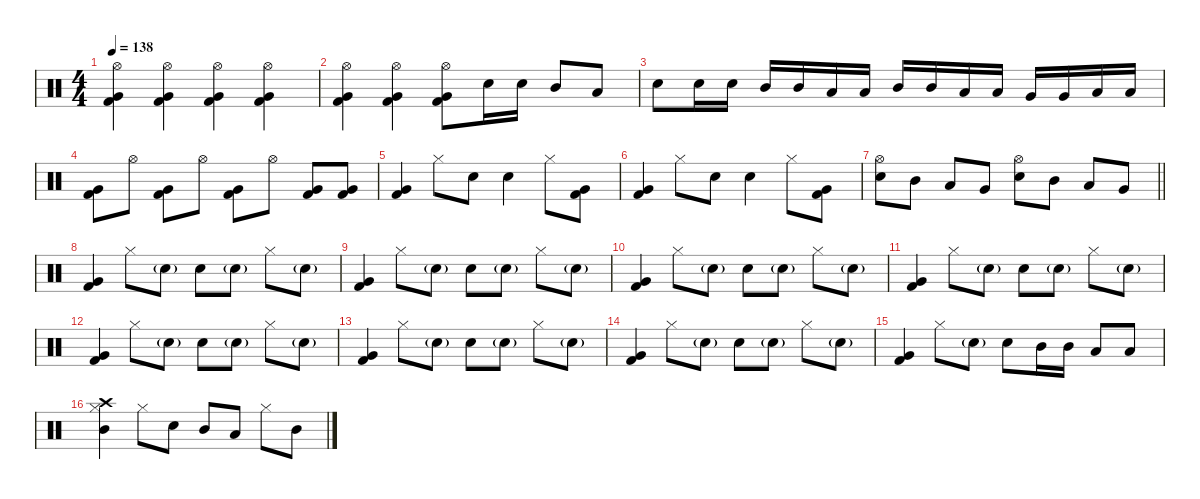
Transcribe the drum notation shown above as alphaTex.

\defaultSystemsLayout 4
\hideDynamics
\bracketExtendMode nobrackets
\singleTrackTrackNamePolicy hidden
\multiTrackTrackNamePolicy hidden
\otherSystemsTrackNameOrientation horizontal
\track ("Drums" "drm.") {instrument percussion}
\staff {score}
\articulation defaults
\ts (4 4)
\tempo 138
\clef neutral
\ks c
("Hi-Hat (open)" "Very Low Tom (hit)" "Kick (hit) 2").4{dy f beam Down} ("Hi-Hat (open)" "Very Low Tom (hit)" "Kick (hit) 2").4{beam Down} ("Hi-Hat (open)" "Very Low Tom (hit)" "Kick (hit) 2").4{beam Down} ("Hi-Hat (open)" "Very Low Tom (hit)" "Kick (hit) 2").4{beam Down} |
("Hi-Hat (open)" "Very Low Tom (hit)" "Kick (hit) 2").4{beam Down} ("Hi-Hat (open)" "Very Low Tom (hit)" "Kick (hit) 2").4{beam Down} ("Hi-Hat (open)" "Very Low Tom (hit)" "Kick (hit) 2").8{beam Down} "Snare (hit) 2".16{beam Down} "Snare (hit) 2".16{beam Down} "Mid Tom (hit)".8{beam Up} "Low Tom (hit)".8{beam Up} |
"Snare (hit) 2".8{beam Down} "Snare (hit) 2".16{beam Down} "Snare (hit) 2".16{beam Down} "Mid Tom (hit)".16{beam Up} "Mid Tom (hit)".16{dy fff beam Up} "Low Tom (hit)".16{dy f beam Up} "Low Tom (hit)".16{dy fff beam Up} "Mid Tom (hit)".16{dy f beam Up} "Mid Tom (hit)".16{beam Up} "Low Tom (hit)".16{beam Up} "Low Tom (hit)".16{beam Up} "Very Low Tom (hit)".16{beam Up} "Very Low Tom (hit)".16{beam Up} "Low Floor Tom (hit)".16{beam Up} "Low Floor Tom (hit)".16{beam Up} |
("Very Low Tom (hit)" "Kick (hit) 2").8{beam Down} "Hi-Hat (open)".8{dy mf beam Down} ("Very Low Tom (hit)" "Kick (hit) 2").8{dy f beam Down} "Hi-Hat (open)".8{dy mf beam Down} ("Very Low Tom (hit)" "Kick (hit) 2").8{dy f beam Down} "Hi-Hat (open)".8{dy mf beam Down} ("Very Low Tom (hit)" "Kick (hit) 2").8{dy f beam Up} ("Very Low Tom (hit)" "Kick (hit) 2").8{beam Up} |
("Very Low Tom (hit)" "Kick (hit) 2").4{dy ff beam Up} "Hi-Hat (closed)".8{dy fff beam Down} "Snare (hit) 2".8{dy p beam Down} "Snare (hit) 2".4{dy ff beam Down} "Hi-Hat (closed)".8{dy fff beam Down} ("Very Low Tom (hit)" "Kick (hit) 2").8{dy ff beam Down} |
("Very Low Tom (hit)" "Kick (hit) 2").4{beam Up} "Hi-Hat (closed)".8{dy fff beam Down} "Snare (hit) 2".8{dy p beam Down} "Snare (hit) 2".4{dy ff beam Down} "Hi-Hat (closed)".8{dy fff beam Down} ("Very Low Tom (hit)" "Kick (hit) 2").8{dy ff beam Down} |
\barLineRight lightlight
("Hi-Hat (open)" "Snare (hit) 2").8{dy fff beam Down} "Mid Tom (hit)".8{beam Down} "Low Tom (hit)".8{beam Up} "Very Low Tom (hit)".8{beam Up} ("Hi-Hat (open)" "Snare (hit) 2").8{beam Down} "Mid Tom (hit)".8{beam Down} "Low Tom (hit)".8{beam Up} "Very Low Tom (hit)".8{beam Up} |
("Very Low Tom (hit)" "Kick (hit) 2").4{dy mf beam Up} "Hi-Hat (closed)".8{dy fff beam Down} "Snare (hit) 2"{g}.8{dy f beam Down} "Snare (hit) 2".8{dy fff beam Down} "Snare (hit) 2"{g}.8{dy f beam Down} "Hi-Hat (closed)".8{dy fff beam Down} "Snare (hit) 2"{g}.8{dy mp beam Down} |
("Very Low Tom (hit)" "Kick (hit) 2").4{dy mf beam Up} "Hi-Hat (closed)".8{dy fff beam Down} "Snare (hit) 2"{g}.8{dy f beam Down} "Snare (hit) 2".8{dy fff beam Down} "Snare (hit) 2"{g}.8{dy f beam Down} "Hi-Hat (closed)".8{dy fff beam Down} "Snare (hit) 2"{g}.8{dy f beam Down} |
("Very Low Tom (hit)" "Kick (hit) 2").4{dy mf beam Up} "Hi-Hat (closed)".8{dy fff beam Down} "Snare (hit) 2"{g}.8{dy f beam Down} "Snare (hit) 2".8{dy ff beam Down} "Snare (hit) 2"{g}.8{dy f beam Down} "Hi-Hat (closed)".8{dy fff beam Down} "Snare (hit) 2"{g}.8{dy f beam Down} |
("Very Low Tom (hit)" "Kick (hit) 2").4{dy mf beam Up} "Hi-Hat (closed)".8{dy fff beam Down} "Snare (hit) 2"{g}.8{dy f beam Down} "Snare (hit) 2".8{dy fff beam Down} "Snare (hit) 2"{g}.8{dy f beam Down} "Hi-Hat (closed)".8{dy fff beam Down} "Snare (hit) 2"{g}.8{dy f beam Down} |
("Very Low Tom (hit)" "Kick (hit) 2").4{dy mf beam Up} "Hi-Hat (closed)".8{dy fff beam Down} "Snare (hit) 2"{g}.8{dy f beam Down} "Snare (hit) 2".8{dy fff beam Down} "Snare (hit) 2"{g}.8{dy f beam Down} "Hi-Hat (closed)".8{dy fff beam Down} "Snare (hit) 2"{g}.8{dy f beam Down} |
("Very Low Tom (hit)" "Kick (hit) 2").4{dy mf beam Up} "Hi-Hat (closed)".8{dy fff beam Down} "Snare (hit) 2"{g}.8{dy f beam Down} "Snare (hit) 2".8{dy fff beam Down} "Snare (hit) 2"{g}.8{dy f beam Down} "Hi-Hat (closed)".8{dy fff beam Down} "Snare (hit) 2"{g}.8{dy f beam Down} |
("Very Low Tom (hit)" "Kick (hit) 2").4{dy mf beam Up} "Hi-Hat (closed)".8{dy fff beam Down} "Snare (hit) 2"{g}.8{dy f beam Down} "Snare (hit) 2".8{dy fff beam Down} "Snare (hit) 2"{g}.8{dy f beam Down} "Hi-Hat (closed)".8{dy fff beam Down} "Snare (hit) 2"{g}.8{dy f beam Down} |
("Very Low Tom (hit)" "Kick (hit) 2").4{dy mf beam Up} "Hi-Hat (closed)".8{dy fff beam Down} "Snare (hit) 2"{g}.8{dy f beam Down} "Snare (hit) 2".8{dy ff beam Down} "Mid Tom (hit)".16{dy mf beam Down} "Mid Tom (hit)".16{beam Down} "Low Tom (hit)".8{beam Up} "Low Tom (hit)".8{beam Up} |
("Crash high (hit)" "Hi-Hat (closed)" "Mid Tom (hit)").4{dy ff beam Down} "Hi-Hat (closed)".8{beam Down} "Snare (hit) 2".8{beam Down} "Mid Tom (hit)".8{beam Up} "Low Tom (hit)".8{beam Up} "Hi-Hat (closed)".8{beam Down} "Mid Tom (hit)".8{beam Down}
